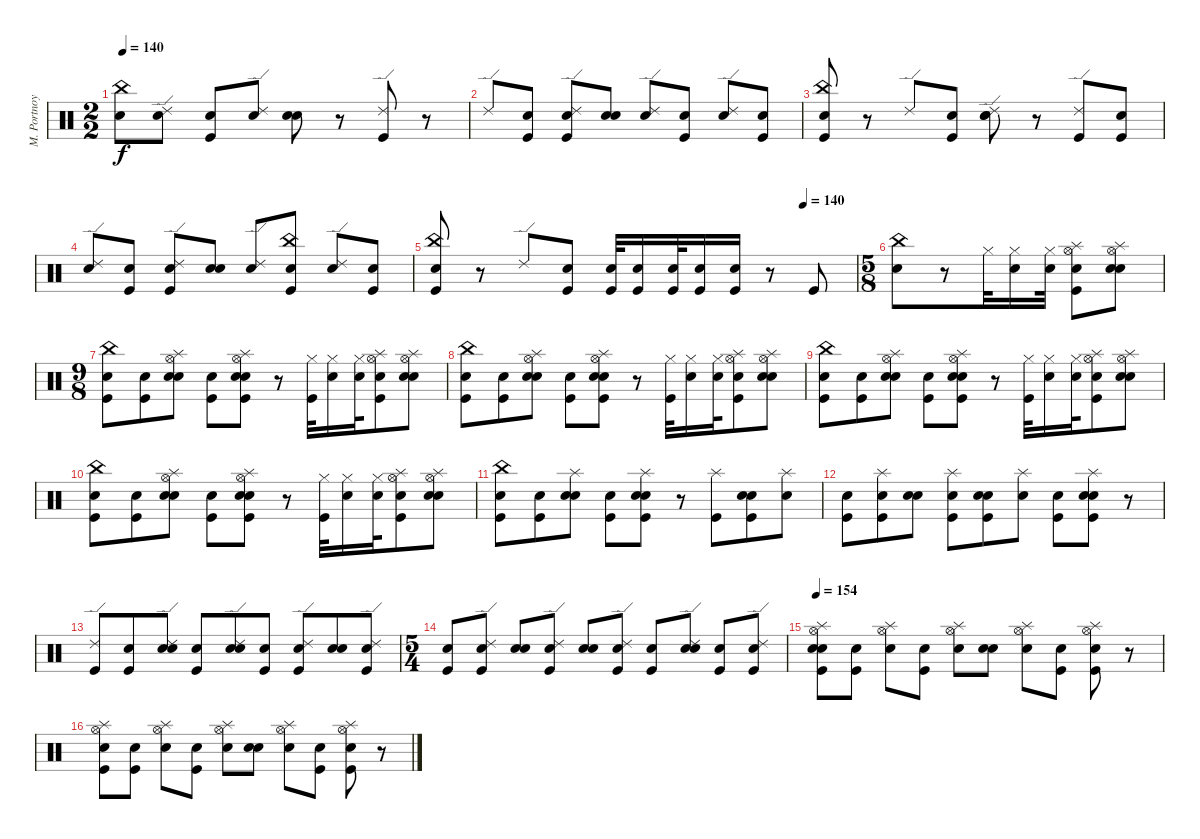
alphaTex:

\track ("M. Portnoy" "M. Portnoy") {instrument percussion}
\staff {score}
\articulation defaults
\ts (2 2)
\tempo 140
\clef neutral
\ks c
("Snare (hit)" "China (hit)").8{dy f} ("Snare (hit)" "Ride (edge) 2").8 ("Snare (hit)" "Kick (hit)").8 ("Snare (hit)" "Ride (edge) 2").8 ("Snare (hit)" "Snare (hit) 2").8 r.8 ("Kick (hit)" "Ride (edge) 2").8 r.8 |
"Ride (edge) 2".8 ("Snare (hit)" "Kick (hit)").8 ("Snare (hit)" "Kick (hit)" "Ride (edge) 2").8 ("Snare (hit)" "Snare (hit) 2").8 ("Snare (hit)" "Ride (edge) 2").8 ("Snare (hit)" "Kick (hit)").8 ("Snare (hit)" "Ride (edge) 2").8 ("Snare (hit)" "Kick (hit)").8 |
("Snare (hit)" "Kick (hit)" "China (hit)").8 r.8 "Ride (edge) 2".8 ("Snare (hit)" "Kick (hit)").8 ("Snare (hit)" "Snare (hit) 2" "Ride (edge) 2").8 r.8 ("Kick (hit)" "Ride (edge) 2").8 ("Snare (hit)" "Kick (hit)").8 |
("Snare (hit)" "Ride (edge) 2").8 ("Snare (hit)" "Kick (hit)").8 ("Snare (hit)" "Kick (hit)" "Ride (edge) 2").8 ("Snare (hit)" "Snare (hit) 2").8 ("Snare (hit)" "Ride (edge) 2").8 ("Snare (hit)" "Kick (hit)" "China (hit)").8 ("Snare (hit)" "Ride (edge) 2").8 ("Snare (hit)" "Kick (hit)").8 |
\tempo (140 0.875)
("Snare (hit)" "Kick (hit)" "China (hit)").8 r.8 "Ride (edge) 2".8 ("Snare (hit)" "Kick (hit)").8 ("Snare (hit)" "Kick (hit)").32 ("Snare (hit)" "Kick (hit)").16 ("Snare (hit)" "Kick (hit)").32 ("Snare (hit)" "Kick (hit)").16 ("Snare (hit)" "Kick (hit)").16 r.8 "Kick (hit)".8 |
\ts (5 8)
("Snare (hit)" "China (hit)").8 r.8 "Hi-Hat (closed)".32 ("Snare (hit)" "Hi-Hat (closed)").16 ("Snare (hit)" "Hi-Hat (closed)").32 ("Snare (hit)" "Kick (hit)" "Hi-Hat (open)" "Splash (hit)").8 ("Snare (hit)" "Snare (hit) 2" "Hi-Hat (open)" "Splash (hit)").8 |
\ts (9 8)
("Snare (hit)" "Kick (hit)" "China (hit)").8 ("Snare (hit)" "Kick (hit)").8 ("Snare (hit)" "Snare (hit) 2" "Hi-Hat (open)" "Splash (hit)").8 ("Snare (hit)" "Kick (hit)").8 ("Snare (hit)" "Kick (hit)" "Snare (hit) 2" "Hi-Hat (open)" "Splash (hit)").8 r.8 ("Kick (hit)" "Hi-Hat (closed)").32 ("Snare (hit)" "Hi-Hat (closed)").16 ("Snare (hit)" "Hi-Hat (closed)").32 ("Snare (hit)" "Kick (hit)" "Hi-Hat (open)" "Splash (hit)").8 ("Snare (hit)" "Snare (hit) 2" "Hi-Hat (open)" "Splash (hit)").8 |
("Snare (hit)" "Kick (hit)" "China (hit)").8 ("Snare (hit)" "Kick (hit)").8 ("Snare (hit)" "Snare (hit) 2" "Hi-Hat (open)" "Splash (hit)").8 ("Snare (hit)" "Kick (hit)").8 ("Snare (hit)" "Kick (hit)" "Snare (hit) 2" "Hi-Hat (open)" "Splash (hit)").8 r.8 ("Kick (hit)" "Hi-Hat (closed)").32 ("Snare (hit)" "Hi-Hat (closed)").16 ("Snare (hit)" "Hi-Hat (closed)").32 ("Snare (hit)" "Kick (hit)" "Hi-Hat (open)" "Splash (hit)").8 ("Snare (hit)" "Snare (hit) 2" "Hi-Hat (open)" "Splash (hit)").8 |
("Snare (hit)" "Kick (hit)" "China (hit)").8 ("Snare (hit)" "Kick (hit)").8 ("Snare (hit)" "Snare (hit) 2" "Hi-Hat (open)" "Splash (hit)").8 ("Snare (hit)" "Kick (hit)").8 ("Snare (hit)" "Kick (hit)" "Snare (hit) 2" "Hi-Hat (open)" "Splash (hit)").8 r.8 ("Kick (hit)" "Hi-Hat (closed)").32 ("Snare (hit)" "Hi-Hat (closed)").16 ("Snare (hit)" "Hi-Hat (closed)").32 ("Snare (hit)" "Kick (hit)" "Hi-Hat (open)" "Splash (hit)").8 ("Snare (hit)" "Snare (hit) 2" "Hi-Hat (open)" "Splash (hit)").8 |
("Snare (hit)" "Kick (hit)" "China (hit)").8 ("Snare (hit)" "Kick (hit)").8 ("Snare (hit)" "Snare (hit) 2" "Hi-Hat (open)" "Splash (hit)").8 ("Snare (hit)" "Kick (hit)").8 ("Snare (hit)" "Kick (hit)" "Snare (hit) 2" "Hi-Hat (open)" "Splash (hit)").8 r.8 ("Kick (hit)" "Hi-Hat (closed)").32 ("Snare (hit)" "Hi-Hat (closed)").16 ("Snare (hit)" "Hi-Hat (closed)").32 ("Snare (hit)" "Kick (hit)" "Hi-Hat (open)" "Splash (hit)").8 ("Snare (hit)" "Snare (hit) 2" "Hi-Hat (open)" "Splash (hit)").8 |
("Snare (hit)" "Kick (hit)" "China (hit)").8 ("Snare (hit)" "Kick (hit)").8 ("Snare (hit)" "Snare (hit) 2" "Splash (hit)").8 ("Snare (hit)" "Kick (hit)").8 ("Snare (hit)" "Kick (hit)" "Snare (hit) 2" "Splash (hit)").8 r.8 ("Kick (hit)" "Splash (hit)").8 ("Snare (hit)" "Kick (hit)" "Snare (hit) 2").8 ("Snare (hit)" "Splash (hit)").8 |
("Snare (hit)" "Kick (hit)").8 ("Snare (hit)" "Kick (hit)" "Splash (hit)").8 ("Snare (hit)" "Snare (hit) 2").8 ("Snare (hit)" "Kick (hit)" "Splash (hit)").8 ("Snare (hit)" "Kick (hit)" "Snare (hit) 2").8 ("Snare (hit)" "Splash (hit)").8 ("Snare (hit)" "Kick (hit)").8 ("Snare (hit)" "Kick (hit)" "Snare (hit) 2" "Splash (hit)").8 r.8 |
("Kick (hit)" "Ride (edge) 2").8 ("Snare (hit)" "Kick (hit)").8 ("Snare (hit)" "Snare (hit) 2" "Ride (edge) 2").8 ("Snare (hit)" "Kick (hit)").8 ("Snare (hit)" "Snare (hit) 2" "Ride (edge) 2").8 ("Snare (hit)" "Kick (hit)").8 ("Snare (hit)" "Kick (hit)" "Ride (edge) 2").8 ("Snare (hit)" "Snare (hit) 2").8 ("Snare (hit)" "Kick (hit)" "Ride (edge) 2").8 |
\ts (5 4)
("Snare (hit)" "Kick (hit)").8 ("Snare (hit)" "Kick (hit)" "Ride (edge) 2").8 ("Snare (hit)" "Snare (hit) 2").8 ("Snare (hit)" "Kick (hit)" "Ride (edge) 2").8 ("Snare (hit)" "Snare (hit) 2").8 ("Snare (hit)" "Kick (hit)" "Ride (edge) 2").8 ("Snare (hit)" "Kick (hit)").8 ("Snare (hit)" "Snare (hit) 2" "Ride (edge) 2").8 ("Snare (hit)" "Kick (hit)").8 ("Snare (hit)" "Kick (hit)" "Ride (edge) 2").8 |
\tempo 154
("Snare (hit)" "Kick (hit)" "Snare (hit) 2" "Hi-Hat (open)" "Splash (hit)").8 ("Snare (hit)" "Kick (hit)").8 ("Snare (hit)" "Hi-Hat (open)" "Splash (hit)").8 ("Snare (hit)" "Kick (hit)").8 ("Snare (hit)" "Hi-Hat (open)" "Splash (hit)").8 ("Snare (hit)" "Snare (hit) 2").8 ("Snare (hit)" "Hi-Hat (open)" "Splash (hit)").8 ("Snare (hit)" "Kick (hit)").8 ("Snare (hit)" "Kick (hit)" "Hi-Hat (open)" "Splash (hit)").8 r.8 |
("Kick (hit)" "Snare (hit) 2" "Hi-Hat (open)" "Splash (hit)").8 ("Snare (hit)" "Kick (hit)").8 ("Snare (hit)" "Hi-Hat (open)" "Splash (hit)").8 ("Snare (hit)" "Kick (hit)").8 ("Snare (hit)" "Hi-Hat (open)" "Splash (hit)").8 ("Snare (hit)" "Snare (hit) 2").8 ("Snare (hit)" "Hi-Hat (open)" "Splash (hit)").8 ("Snare (hit)" "Kick (hit)").8 ("Snare (hit)" "Kick (hit)" "Hi-Hat (open)" "Splash (hit)").8 r.8
